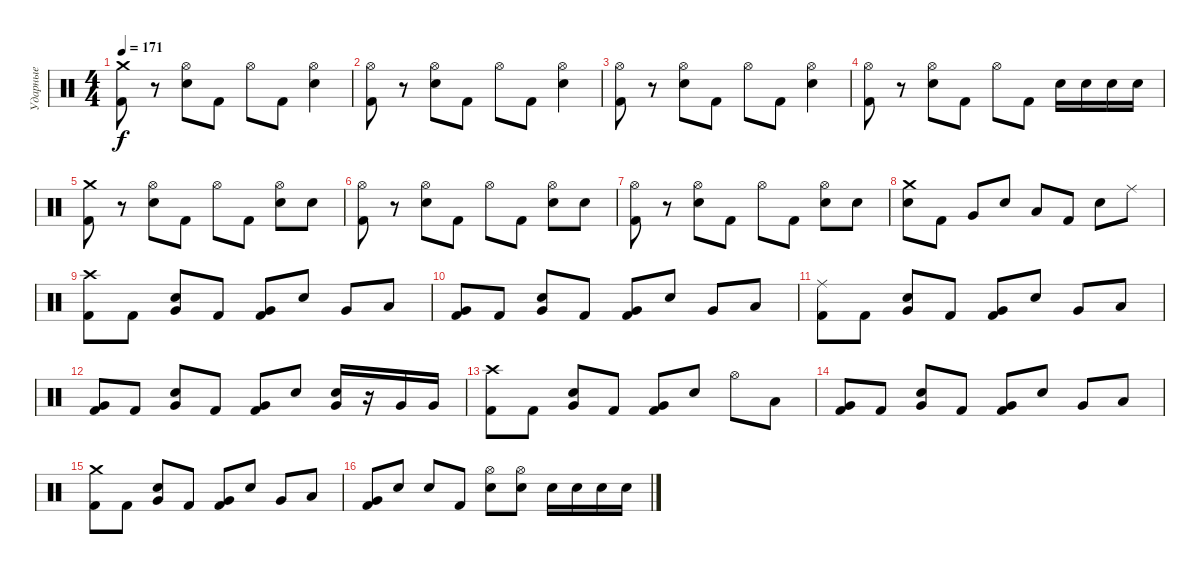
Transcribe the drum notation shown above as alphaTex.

\track ("Ударные" "Ударные") {instrument percussion}
\staff {score}
\articulation defaults
\ts (4 4)
\tempo 171
\clef neutral
\ks c
("Crash medium (hit)" "Kick (hit) 2").8{dy f} r.8 ("Hi-Hat (open)" "Electric Snare (hit)").8 "Kick (hit) 2".8 "Hi-Hat (open)".8 "Kick (hit) 2".8 ("Hi-Hat (open)" "Electric Snare (hit)").4 |
("Hi-Hat (open)" "Kick (hit) 2").8 r.8 ("Hi-Hat (open)" "Electric Snare (hit)").8 "Kick (hit) 2".8 "Hi-Hat (open)".8 "Kick (hit) 2".8 ("Hi-Hat (open)" "Electric Snare (hit)").4 |
("Hi-Hat (open)" "Kick (hit) 2").8 r.8 ("Hi-Hat (open)" "Electric Snare (hit)").8 "Kick (hit) 2".8 "Hi-Hat (open)".8 "Kick (hit) 2".8 ("Hi-Hat (open)" "Electric Snare (hit)").4 |
("Hi-Hat (open)" "Kick (hit) 2").8 r.8 ("Hi-Hat (open)" "Electric Snare (hit)").8 "Kick (hit) 2".8 "Hi-Hat (open)".8 "Kick (hit) 2".8 "Electric Snare (hit)".16 "Electric Snare (hit)".16 "Electric Snare (hit)".16 "Electric Snare (hit)".16 |
("Crash medium (hit)" "Kick (hit) 2").8 r.8 ("Hi-Hat (open)" "Electric Snare (hit)").8 "Kick (hit) 2".8 "Hi-Hat (open)".8 "Kick (hit) 2".8 ("Hi-Hat (open)" "Electric Snare (hit)").8 "Electric Snare (hit)".8 |
("Hi-Hat (open)" "Kick (hit) 2").8 r.8 ("Hi-Hat (open)" "Electric Snare (hit)").8 "Kick (hit) 2".8 "Hi-Hat (open)".8 "Kick (hit) 2".8 ("Hi-Hat (open)" "Electric Snare (hit)").8 "Electric Snare (hit)".8 |
("Hi-Hat (open)" "Kick (hit) 2").8 r.8 ("Hi-Hat (open)" "Electric Snare (hit)").8 "Kick (hit) 2".8 "Hi-Hat (open)".8 "Kick (hit) 2".8 ("Hi-Hat (open)" "Electric Snare (hit)").8 "Electric Snare (hit)".8 |
("Crash medium (hit)" "Electric Snare (hit)").8 "Kick (hit) 2".8 "Very Low Tom (hit)".8 "Electric Snare (hit)".8 "Low Tom (hit)".8 "Kick (hit) 2".8 "Electric Snare (hit)".8 "Ride (middle)".8 |
("Crash high (hit)" "Kick (hit) 2").8 "Kick (hit) 2".8 ("Very Low Tom (hit)" "Electric Snare (hit)").8 "Kick (hit) 2".8 ("Very Low Tom (hit)" "Kick (hit) 2").8 "Electric Snare (hit)".8 "Very Low Tom (hit)".8 "Low Tom (hit)".8 |
("Very Low Tom (hit)" "Kick (hit) 2").8 "Kick (hit) 2".8 ("Very Low Tom (hit)" "Electric Snare (hit)").8 "Kick (hit) 2".8 ("Very Low Tom (hit)" "Kick (hit) 2").8 "Electric Snare (hit)".8 "Very Low Tom (hit)".8 "Low Tom (hit)".8 |
("Ride (middle)" "Kick (hit) 2").8 "Kick (hit) 2".8 ("Very Low Tom (hit)" "Electric Snare (hit)").8 "Kick (hit) 2".8 ("Very Low Tom (hit)" "Kick (hit) 2").8 "Electric Snare (hit)".8 "Very Low Tom (hit)".8 "Low Tom (hit)".8 |
("Very Low Tom (hit)" "Kick (hit) 2").8 "Kick (hit) 2".8 ("Very Low Tom (hit)" "Electric Snare (hit)").8 "Kick (hit) 2".8 ("Very Low Tom (hit)" "Kick (hit) 2").8 "Electric Snare (hit)".8 ("Very Low Tom (hit)" "Electric Snare (hit)").16 r.16 "Very Low Tom (hit)".16 "Very Low Tom (hit)".16 |
("Crash high (hit)" "Kick (hit) 2").8 "Kick (hit) 2".8 ("Very Low Tom (hit)" "Electric Snare (hit)").8 "Kick (hit) 2".8 ("Very Low Tom (hit)" "Kick (hit) 2").8 "Electric Snare (hit)".8 "Hi-Hat (open)".8 "Low Tom (hit)".8 |
("Very Low Tom (hit)" "Kick (hit) 2").8 "Kick (hit) 2".8 ("Very Low Tom (hit)" "Electric Snare (hit)").8 "Kick (hit) 2".8 ("Very Low Tom (hit)" "Kick (hit) 2").8 "Electric Snare (hit)".8 "Very Low Tom (hit)".8 "Low Tom (hit)".8 |
("Crash medium (hit)" "Kick (hit) 2").8 "Kick (hit) 2".8 ("Very Low Tom (hit)" "Electric Snare (hit)").8 "Kick (hit) 2".8 ("Very Low Tom (hit)" "Kick (hit) 2").8 "Electric Snare (hit)".8 "Very Low Tom (hit)".8 "Low Tom (hit)".8 |
("Very Low Tom (hit)" "Kick (hit) 2").8 "Electric Snare (hit)".8 "Electric Snare (hit)".8 "Kick (hit) 2".8 ("Hi-Hat (open)" "Electric Snare (hit)").8 ("Hi-Hat (open)" "Electric Snare (hit)").8 "Electric Snare (hit)".16 "Electric Snare (hit)".16 "Electric Snare (hit)".16 "Electric Snare (hit)".16
